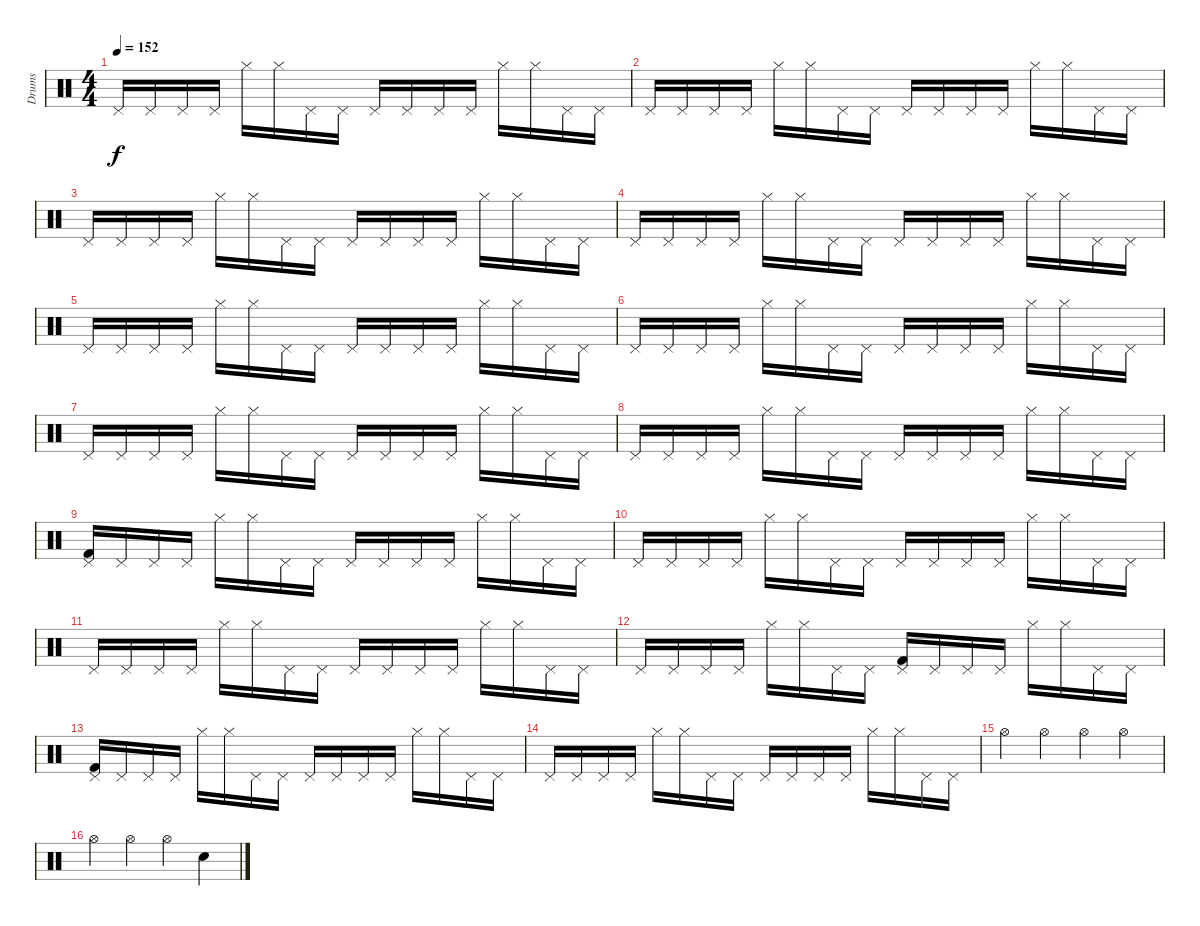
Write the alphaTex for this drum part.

\track ("Drums" "Drums") {instrument percussion}
\staff {score}
\articulation defaults
\ts (4 4)
\tempo 152
\clef neutral
\ks c "Pedal Hi-Hat (hit)".16{dy f} "Pedal Hi-Hat (hit)".16 "Pedal Hi-Hat (hit)".16 "Pedal Hi-Hat (hit)".16 "Hi-Hat (closed)".16 "Hi-Hat (closed)".16 "Pedal Hi-Hat (hit)".16 "Pedal Hi-Hat (hit)".16 "Pedal Hi-Hat (hit)".16 "Pedal Hi-Hat (hit)".16 "Pedal Hi-Hat (hit)".16 "Pedal Hi-Hat (hit)".16 "Hi-Hat (closed)".16 "Hi-Hat (closed)".16 "Pedal Hi-Hat (hit)".16 "Pedal Hi-Hat (hit)".16
|
"Pedal Hi-Hat (hit)".16 "Pedal Hi-Hat (hit)".16 "Pedal Hi-Hat (hit)".16 "Pedal Hi-Hat (hit)".16 "Hi-Hat (closed)".16 "Hi-Hat (closed)".16 "Pedal Hi-Hat (hit)".16 "Pedal Hi-Hat (hit)".16 "Pedal Hi-Hat (hit)".16 "Pedal Hi-Hat (hit)".16 "Pedal Hi-Hat (hit)".16 "Pedal Hi-Hat (hit)".16 "Hi-Hat (closed)".16 "Hi-Hat (closed)".16 "Pedal Hi-Hat (hit)".16 "Pedal Hi-Hat (hit)".16 |
"Pedal Hi-Hat (hit)".16 "Pedal Hi-Hat (hit)".16 "Pedal Hi-Hat (hit)".16 "Pedal Hi-Hat (hit)".16 "Hi-Hat (closed)".16 "Hi-Hat (closed)".16 "Pedal Hi-Hat (hit)".16 "Pedal Hi-Hat (hit)".16 "Pedal Hi-Hat (hit)".16 "Pedal Hi-Hat (hit)".16 "Pedal Hi-Hat (hit)".16 "Pedal Hi-Hat (hit)".16 "Hi-Hat (closed)".16 "Hi-Hat (closed)".16 "Pedal Hi-Hat (hit)".16 "Pedal Hi-Hat (hit)".16 |
"Pedal Hi-Hat (hit)".16 "Pedal Hi-Hat (hit)".16 "Pedal Hi-Hat (hit)".16 "Pedal Hi-Hat (hit)".16 "Hi-Hat (closed)".16 "Hi-Hat (closed)".16 "Pedal Hi-Hat (hit)".16 "Pedal Hi-Hat (hit)".16 "Pedal Hi-Hat (hit)".16 "Pedal Hi-Hat (hit)".16 "Pedal Hi-Hat (hit)".16 "Pedal Hi-Hat (hit)".16 "Hi-Hat (closed)".16 "Hi-Hat (closed)".16 "Pedal Hi-Hat (hit)".16 "Pedal Hi-Hat (hit)".16 |
"Pedal Hi-Hat (hit)".16 "Pedal Hi-Hat (hit)".16 "Pedal Hi-Hat (hit)".16 "Pedal Hi-Hat (hit)".16 "Hi-Hat (closed)".16 "Hi-Hat (closed)".16 "Pedal Hi-Hat (hit)".16 "Pedal Hi-Hat (hit)".16 "Pedal Hi-Hat (hit)".16 "Pedal Hi-Hat (hit)".16 "Pedal Hi-Hat (hit)".16 "Pedal Hi-Hat (hit)".16 "Hi-Hat (closed)".16 "Hi-Hat (closed)".16 "Pedal Hi-Hat (hit)".16 "Pedal Hi-Hat (hit)".16 |
"Pedal Hi-Hat (hit)".16 "Pedal Hi-Hat (hit)".16 "Pedal Hi-Hat (hit)".16 "Pedal Hi-Hat (hit)".16 "Hi-Hat (closed)".16 "Hi-Hat (closed)".16 "Pedal Hi-Hat (hit)".16 "Pedal Hi-Hat (hit)".16 "Pedal Hi-Hat (hit)".16 "Pedal Hi-Hat (hit)".16 "Pedal Hi-Hat (hit)".16 "Pedal Hi-Hat (hit)".16 "Hi-Hat (closed)".16 "Hi-Hat (closed)".16 "Pedal Hi-Hat (hit)".16 "Pedal Hi-Hat (hit)".16 |
"Pedal Hi-Hat (hit)".16 "Pedal Hi-Hat (hit)".16 "Pedal Hi-Hat (hit)".16 "Pedal Hi-Hat (hit)".16 "Hi-Hat (closed)".16 "Hi-Hat (closed)".16 "Pedal Hi-Hat (hit)".16 "Pedal Hi-Hat (hit)".16 "Pedal Hi-Hat (hit)".16 "Pedal Hi-Hat (hit)".16 "Pedal Hi-Hat (hit)".16 "Pedal Hi-Hat (hit)".16 "Hi-Hat (closed)".16 "Hi-Hat (closed)".16 "Pedal Hi-Hat (hit)".16 "Pedal Hi-Hat (hit)".16 |
"Pedal Hi-Hat (hit)".16 "Pedal Hi-Hat (hit)".16 "Pedal Hi-Hat (hit)".16 "Pedal Hi-Hat (hit)".16 "Hi-Hat (closed)".16 "Hi-Hat (closed)".16 "Pedal Hi-Hat (hit)".16 "Pedal Hi-Hat (hit)".16 "Pedal Hi-Hat (hit)".16 "Pedal Hi-Hat (hit)".16 "Pedal Hi-Hat (hit)".16 "Pedal Hi-Hat (hit)".16 "Hi-Hat (closed)".16 "Hi-Hat (closed)".16 "Pedal Hi-Hat (hit)".16 "Pedal Hi-Hat (hit)".16 |
("Pedal Hi-Hat (hit)" "Kick (hit) 2").16 "Pedal Hi-Hat (hit)".16 "Pedal Hi-Hat (hit)".16 "Pedal Hi-Hat (hit)".16 "Hi-Hat (closed)".16 "Hi-Hat (closed)".16 "Pedal Hi-Hat (hit)".16 "Pedal Hi-Hat (hit)".16 "Pedal Hi-Hat (hit)".16 "Pedal Hi-Hat (hit)".16 "Pedal Hi-Hat (hit)".16 "Pedal Hi-Hat (hit)".16 "Hi-Hat (closed)".16 "Hi-Hat (closed)".16 "Pedal Hi-Hat (hit)".16 "Pedal Hi-Hat (hit)".16 |
"Pedal Hi-Hat (hit)".16 "Pedal Hi-Hat (hit)".16 "Pedal Hi-Hat (hit)".16 "Pedal Hi-Hat (hit)".16 "Hi-Hat (closed)".16 "Hi-Hat (closed)".16 "Pedal Hi-Hat (hit)".16 "Pedal Hi-Hat (hit)".16 "Pedal Hi-Hat (hit)".16 "Pedal Hi-Hat (hit)".16 "Pedal Hi-Hat (hit)".16 "Pedal Hi-Hat (hit)".16 "Hi-Hat (closed)".16 "Hi-Hat (closed)".16 "Pedal Hi-Hat (hit)".16 "Pedal Hi-Hat (hit)".16 |
"Pedal Hi-Hat (hit)".16 "Pedal Hi-Hat (hit)".16 "Pedal Hi-Hat (hit)".16 "Pedal Hi-Hat (hit)".16 "Hi-Hat (closed)".16 "Hi-Hat (closed)".16 "Pedal Hi-Hat (hit)".16 "Pedal Hi-Hat (hit)".16 "Pedal Hi-Hat (hit)".16 "Pedal Hi-Hat (hit)".16 "Pedal Hi-Hat (hit)".16 "Pedal Hi-Hat (hit)".16 "Hi-Hat (closed)".16 "Hi-Hat (closed)".16 "Pedal Hi-Hat (hit)".16 "Pedal Hi-Hat (hit)".16 |
"Pedal Hi-Hat (hit)".16 "Pedal Hi-Hat (hit)".16 "Pedal Hi-Hat (hit)".16 "Pedal Hi-Hat (hit)".16 "Hi-Hat (closed)".16 "Hi-Hat (closed)".16 "Pedal Hi-Hat (hit)".16 "Pedal Hi-Hat (hit)".16 ("Pedal Hi-Hat (hit)" "Kick (hit) 2").16 "Pedal Hi-Hat (hit)".16 "Pedal Hi-Hat (hit)".16 "Pedal Hi-Hat (hit)".16 "Hi-Hat (closed)".16 "Hi-Hat (closed)".16 "Pedal Hi-Hat (hit)".16 "Pedal Hi-Hat (hit)".16 |
("Pedal Hi-Hat (hit)" "Kick (hit) 2").16 "Pedal Hi-Hat (hit)".16 "Pedal Hi-Hat (hit)".16 "Pedal Hi-Hat (hit)".16 "Hi-Hat (closed)".16 "Hi-Hat (closed)".16 "Pedal Hi-Hat (hit)".16 "Pedal Hi-Hat (hit)".16 "Pedal Hi-Hat (hit)".16 "Pedal Hi-Hat (hit)".16 "Pedal Hi-Hat (hit)".16 "Pedal Hi-Hat (hit)".16 "Hi-Hat (closed)".16 "Hi-Hat (closed)".16 "Pedal Hi-Hat (hit)".16 "Pedal Hi-Hat (hit)".16 |
"Pedal Hi-Hat (hit)".16 "Pedal Hi-Hat (hit)".16 "Pedal Hi-Hat (hit)".16 "Pedal Hi-Hat (hit)".16 "Hi-Hat (closed)".16 "Hi-Hat (closed)".16 "Pedal Hi-Hat (hit)".16 "Pedal Hi-Hat (hit)".16 "Pedal Hi-Hat (hit)".16 "Pedal Hi-Hat (hit)".16 "Pedal Hi-Hat (hit)".16 "Pedal Hi-Hat (hit)".16 "Hi-Hat (closed)".16 "Hi-Hat (closed)".16 "Pedal Hi-Hat (hit)".16 "Pedal Hi-Hat (hit)".16 |
"Hi-Hat (open)".4 "Hi-Hat (open)".4 "Hi-Hat (open)".4 "Hi-Hat (open)".4 |
"Hi-Hat (open)".4 "Hi-Hat (open)".4 "Hi-Hat (open)".4 "Electric Snare (hit)".4
